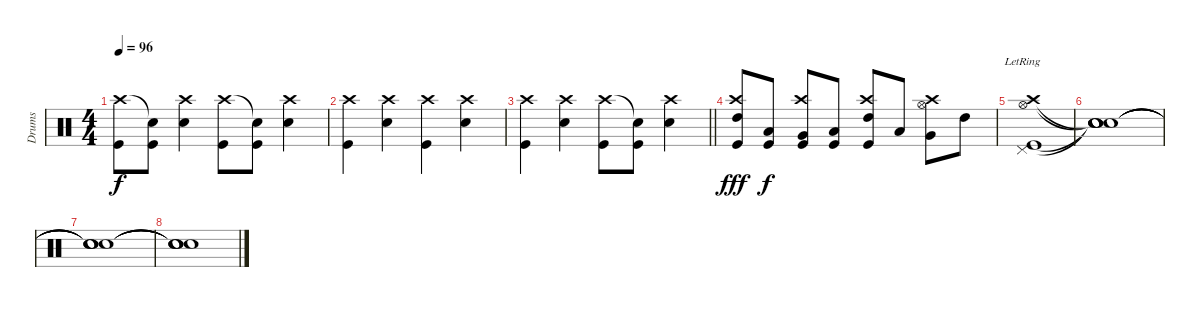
\track ("Drums" "Drums") {instrument percussion}
\staff {score}
\articulation defaults
\ts (4 4)
\tempo 96
\clef neutral
\ks c
("Kick (hit)" "Crash high (hit)").8{dy f} ("Kick (hit)" "Snare (hit)"{t}).8 ("Snare (hit) 2" "Crash high (hit)").4 ("Kick (hit)" "Crash high (hit)").8 ("Kick (hit)" "Snare (hit)"{t}).8 ("Snare (hit) 2" "Crash high (hit)").4 |
("Kick (hit)" "Crash high (hit)").4 ("Snare (hit) 2" "Crash high (hit)").4 ("Kick (hit)" "Crash high (hit)").4 ("Snare (hit) 2" "Crash high (hit)").4 |
\barLineRight lightlight
("Kick (hit)" "Crash high (hit)").4 ("Snare (hit) 2" "Crash high (hit)").4 ("Kick (hit)" "Crash high (hit)").8 ("Kick (hit)" "Snare (hit)"{t}).8 ("Snare (hit) 2" "Crash high (hit)").4 |
("High Tom (hit)" "Kick (hit)" "Crash high (hit)").8{dy fff} ("Low Tom (hit)" "Kick (hit)").8{dy f} ("Very Low Tom (hit)" "Kick (hit)" "Crash high (hit)").8 ("Low Tom (hit)" "Kick (hit)").8 ("High Tom (hit)" "Kick (hit)" "Crash high (hit)").8 "Low Tom (hit)".8 ("Very Low Tom (hit)" "Hi-Hat (open)" "Crash high (hit)").8 "High Tom (hit)".8 |
("Crash high (hit)"{lr} "Hi-Hat (open)"{lr} "Pedal Hi-Hat (hit)"{lr} "Kick (hit)"{lr}).1 |
("Snare (hit)"{t} "Snare (hit)"{t} "Snare (hit)"{t} "Snare (hit)"{t}).1 |
("Snare (hit)"{t} "Snare (hit)"{t} "Snare (hit)"{t} "Snare (hit)"{t}).1 |
("Snare (hit)"{t} "Snare (hit)"{t} "Snare (hit)"{t} "Snare (hit)"{t}).1
